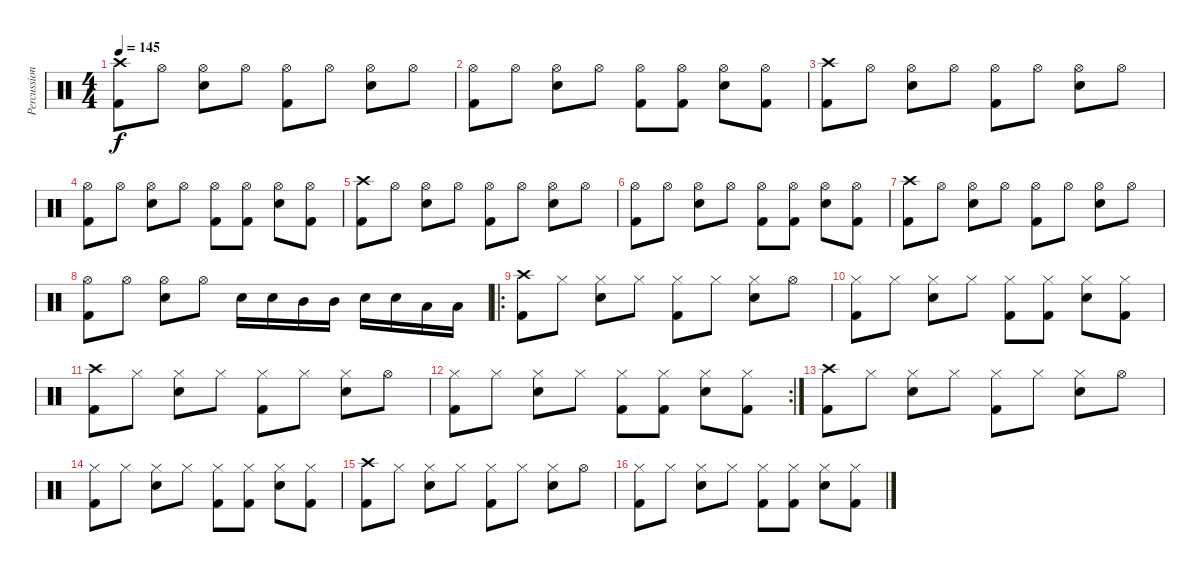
\track ("Percussion" "Percussion") {instrument percussion}
\staff {score}
\articulation defaults
\ts (4 4)
\tempo 145
\clef neutral
\ks c
("Kick (hit) 2" "Crash high (hit)").8{dy f} "Hi-Hat (open)".8 ("Electric Snare (hit)" "Hi-Hat (open)").8 "Hi-Hat (open)".8 ("Kick (hit) 2" "Hi-Hat (open)").8 "Hi-Hat (open)".8 ("Electric Snare (hit)" "Hi-Hat (open)").8 "Hi-Hat (open)".8 |
("Kick (hit) 2" "Hi-Hat (open)").8 "Hi-Hat (open)".8 ("Electric Snare (hit)" "Hi-Hat (open)").8 "Hi-Hat (open)".8 ("Kick (hit) 2" "Hi-Hat (open)").8 ("Kick (hit) 2" "Hi-Hat (open)").8 ("Electric Snare (hit)" "Hi-Hat (open)").8 ("Kick (hit) 2" "Hi-Hat (open)").8 |
("Kick (hit) 2" "Crash high (hit)").8 "Hi-Hat (open)".8 ("Electric Snare (hit)" "Hi-Hat (open)").8 "Hi-Hat (open)".8 ("Kick (hit) 2" "Hi-Hat (open)").8 "Hi-Hat (open)".8 ("Electric Snare (hit)" "Hi-Hat (open)").8 "Hi-Hat (open)".8 |
("Kick (hit) 2" "Hi-Hat (open)").8 "Hi-Hat (open)".8 ("Electric Snare (hit)" "Hi-Hat (open)").8 "Hi-Hat (open)".8 ("Kick (hit) 2" "Hi-Hat (open)").8 ("Kick (hit) 2" "Hi-Hat (open)").8 ("Electric Snare (hit)" "Hi-Hat (open)").8 ("Kick (hit) 2" "Hi-Hat (open)").8 |
("Kick (hit) 2" "Crash high (hit)").8 "Hi-Hat (open)".8 ("Electric Snare (hit)" "Hi-Hat (open)").8 "Hi-Hat (open)".8 ("Kick (hit) 2" "Hi-Hat (open)").8 "Hi-Hat (open)".8 ("Electric Snare (hit)" "Hi-Hat (open)").8 "Hi-Hat (open)".8 |
("Kick (hit) 2" "Hi-Hat (open)").8 "Hi-Hat (open)".8 ("Electric Snare (hit)" "Hi-Hat (open)").8 "Hi-Hat (open)".8 ("Kick (hit) 2" "Hi-Hat (open)").8 ("Kick (hit) 2" "Hi-Hat (open)").8 ("Electric Snare (hit)" "Hi-Hat (open)").8 ("Kick (hit) 2" "Hi-Hat (open)").8 |
("Kick (hit) 2" "Crash high (hit)").8 "Hi-Hat (open)".8 ("Electric Snare (hit)" "Hi-Hat (open)").8 "Hi-Hat (open)".8 ("Kick (hit) 2" "Hi-Hat (open)").8 "Hi-Hat (open)".8 ("Electric Snare (hit)" "Hi-Hat (open)").8 "Hi-Hat (open)".8 |
("Kick (hit) 2" "Hi-Hat (open)").8 "Hi-Hat (open)".8 ("Electric Snare (hit)" "Hi-Hat (open)").8 "Hi-Hat (open)".8 "Electric Snare (hit)".16 "Electric Snare (hit)".16 "Mid Tom (hit)".16 "Mid Tom (hit)".16 "Electric Snare (hit)".16 "Electric Snare (hit)".16 "Low Tom (hit)".16 "Low Tom (hit)".16 |
\ro
("Kick (hit) 2" "Crash high (hit)").8 "Hi-Hat (closed)".8 ("Electric Snare (hit)" "Hi-Hat (closed)").8 "Hi-Hat (closed)".8 ("Kick (hit) 2" "Hi-Hat (closed)").8 "Hi-Hat (closed)".8 ("Electric Snare (hit)" "Hi-Hat (closed)").8 "Hi-Hat (open)".8 |
("Kick (hit) 2" "Hi-Hat (closed)").8 "Hi-Hat (closed)".8 ("Electric Snare (hit)" "Hi-Hat (closed)").8 "Hi-Hat (closed)".8 ("Kick (hit) 2" "Hi-Hat (closed)").8 ("Kick (hit) 2" "Hi-Hat (closed)").8 ("Electric Snare (hit)" "Hi-Hat (closed)").8 ("Kick (hit) 2" "Hi-Hat (closed)").8 |
("Kick (hit) 2" "Crash high (hit)").8 "Hi-Hat (closed)".8 ("Electric Snare (hit)" "Hi-Hat (closed)").8 "Hi-Hat (closed)".8 ("Kick (hit) 2" "Hi-Hat (closed)").8 "Hi-Hat (closed)".8 ("Electric Snare (hit)" "Hi-Hat (closed)").8 "Hi-Hat (open)".8 |
\rc 2
("Kick (hit) 2" "Hi-Hat (closed)").8 "Hi-Hat (closed)".8 ("Electric Snare (hit)" "Hi-Hat (closed)").8 "Hi-Hat (closed)".8 ("Kick (hit) 2" "Hi-Hat (closed)").8 ("Kick (hit) 2" "Hi-Hat (closed)").8 ("Electric Snare (hit)" "Hi-Hat (closed)").8 ("Kick (hit) 2" "Hi-Hat (closed)").8 |
("Kick (hit) 2" "Crash high (hit)").8 "Hi-Hat (closed)".8 ("Electric Snare (hit)" "Hi-Hat (closed)").8 "Hi-Hat (closed)".8 ("Kick (hit) 2" "Hi-Hat (closed)").8 "Hi-Hat (closed)".8 ("Electric Snare (hit)" "Hi-Hat (closed)").8 "Hi-Hat (open)".8 |
("Kick (hit) 2" "Hi-Hat (closed)").8 "Hi-Hat (closed)".8 ("Electric Snare (hit)" "Hi-Hat (closed)").8 "Hi-Hat (closed)".8 ("Kick (hit) 2" "Hi-Hat (closed)").8 ("Kick (hit) 2" "Hi-Hat (closed)").8 ("Electric Snare (hit)" "Hi-Hat (closed)").8 ("Kick (hit) 2" "Hi-Hat (closed)").8 |
("Kick (hit) 2" "Crash high (hit)").8 "Hi-Hat (closed)".8 ("Electric Snare (hit)" "Hi-Hat (closed)").8 "Hi-Hat (closed)".8 ("Kick (hit) 2" "Hi-Hat (closed)").8 "Hi-Hat (closed)".8 ("Electric Snare (hit)" "Hi-Hat (closed)").8 "Hi-Hat (open)".8 |
("Kick (hit) 2" "Hi-Hat (closed)").8 "Hi-Hat (closed)".8 ("Electric Snare (hit)" "Hi-Hat (closed)").8 "Hi-Hat (closed)".8 ("Kick (hit) 2" "Hi-Hat (closed)").8 ("Kick (hit) 2" "Hi-Hat (closed)").8 ("Electric Snare (hit)" "Hi-Hat (closed)").8 ("Kick (hit) 2" "Hi-Hat (closed)").8
